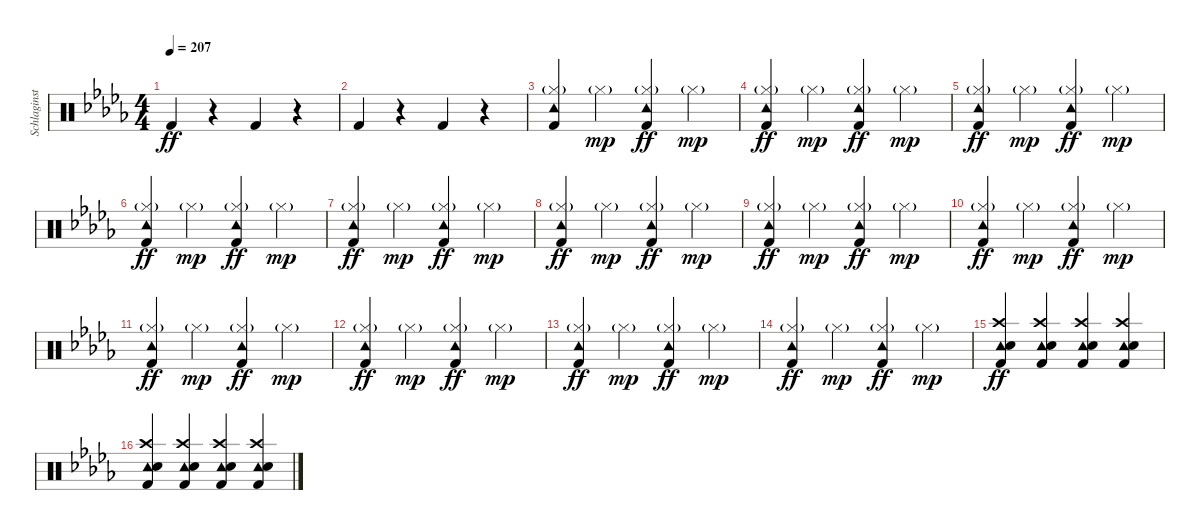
\track ("Schlaginstrumente - Auswahl" "Schlaginst") {instrument percussion}
\staff {score}
\articulation defaults
\ts (4 4)
\tempo 207
\clef neutral
\ks bbminor "Kick (hit) 2".4{dy ff}
r.4 "Kick (hit) 2".4 r.4 |
"Kick (hit) 2".4 r.4 "Kick (hit) 2".4 r.4 |
("Hi-Hat (closed)"{g} "Tambourine (hit)" "Kick (hit) 2").4 "Hi-Hat (closed)"{g}.4{dy mp} ("Hi-Hat (closed)"{g} "Tambourine (hit)" "Kick (hit) 2").4{dy ff} "Hi-Hat (closed)"{g}.4{dy mp} |
("Hi-Hat (closed)"{g} "Tambourine (hit)" "Kick (hit) 2").4{dy ff} "Hi-Hat (closed)"{g}.4{dy mp} ("Hi-Hat (closed)"{g} "Tambourine (hit)" "Kick (hit) 2").4{dy ff} "Hi-Hat (closed)"{g}.4{dy mp} |
("Hi-Hat (closed)"{g} "Tambourine (hit)" "Kick (hit) 2").4{dy ff} "Hi-Hat (closed)"{g}.4{dy mp} ("Hi-Hat (closed)"{g} "Tambourine (hit)" "Kick (hit) 2").4{dy ff} "Hi-Hat (closed)"{g}.4{dy mp} |
("Hi-Hat (closed)"{g} "Tambourine (hit)" "Kick (hit) 2").4{dy ff} "Hi-Hat (closed)"{g}.4{dy mp} ("Hi-Hat (closed)"{g} "Tambourine (hit)" "Kick (hit) 2").4{dy ff} "Hi-Hat (closed)"{g}.4{dy mp} |
("Hi-Hat (closed)"{g} "Tambourine (hit)" "Kick (hit) 2").4{dy ff} "Hi-Hat (closed)"{g}.4{dy mp} ("Hi-Hat (closed)"{g} "Tambourine (hit)" "Kick (hit) 2").4{dy ff} "Hi-Hat (closed)"{g}.4{dy mp} |
("Hi-Hat (closed)"{g} "Tambourine (hit)" "Kick (hit) 2").4{dy ff} "Hi-Hat (closed)"{g}.4{dy mp} ("Hi-Hat (closed)"{g} "Tambourine (hit)" "Kick (hit) 2").4{dy ff} "Hi-Hat (closed)"{g}.4{dy mp} |
("Hi-Hat (closed)"{g} "Tambourine (hit)" "Kick (hit) 2").4{dy ff} "Hi-Hat (closed)"{g}.4{dy mp} ("Hi-Hat (closed)"{g} "Tambourine (hit)" "Kick (hit) 2").4{dy ff} "Hi-Hat (closed)"{g}.4{dy mp} |
("Hi-Hat (closed)"{g} "Tambourine (hit)" "Kick (hit) 2").4{dy ff} "Hi-Hat (closed)"{g}.4{dy mp} ("Hi-Hat (closed)"{g} "Tambourine (hit)" "Kick (hit) 2").4{dy ff} "Hi-Hat (closed)"{g}.4{dy mp} |
("Hi-Hat (closed)"{g} "Tambourine (hit)" "Kick (hit) 2").4{dy ff} "Hi-Hat (closed)"{g}.4{dy mp} ("Hi-Hat (closed)"{g} "Tambourine (hit)" "Kick (hit) 2").4{dy ff} "Hi-Hat (closed)"{g}.4{dy mp} |
("Hi-Hat (closed)"{g} "Tambourine (hit)" "Kick (hit) 2").4{dy ff} "Hi-Hat (closed)"{g}.4{dy mp} ("Hi-Hat (closed)"{g} "Tambourine (hit)" "Kick (hit) 2").4{dy ff} "Hi-Hat (closed)"{g}.4{dy mp} |
("Hi-Hat (closed)"{g} "Tambourine (hit)" "Kick (hit) 2").4{dy ff} "Hi-Hat (closed)"{g}.4{dy mp} ("Hi-Hat (closed)"{g} "Tambourine (hit)" "Kick (hit) 2").4{dy ff} "Hi-Hat (closed)"{g}.4{dy mp} |
("Hi-Hat (closed)"{g} "Tambourine (hit)" "Kick (hit) 2").4{dy ff} "Hi-Hat (closed)"{g}.4{dy mp} ("Hi-Hat (closed)"{g} "Tambourine (hit)" "Kick (hit) 2").4{dy ff} "Hi-Hat (closed)"{g}.4{dy mp} |
("Crash high (hit)" "Tambourine (hit)" "Snare (hit) 2" "Kick (hit) 2").4{dy ff} ("Crash high (hit)" "Tambourine (hit)" "Snare (hit) 2" "Kick (hit) 2").4 ("Crash high (hit)" "Tambourine (hit)" "Snare (hit) 2" "Kick (hit) 2").4 ("Crash high (hit)" "Tambourine (hit)" "Snare (hit) 2" "Kick (hit) 2").4 |
("Crash high (hit)" "Tambourine (hit)" "Snare (hit) 2" "Kick (hit) 2").4 ("Crash high (hit)" "Tambourine (hit)" "Snare (hit) 2" "Kick (hit) 2").4 ("Crash high (hit)" "Tambourine (hit)" "Snare (hit) 2" "Kick (hit) 2").4 ("Crash high (hit)" "Tambourine (hit)" "Snare (hit) 2" "Kick (hit) 2").4
